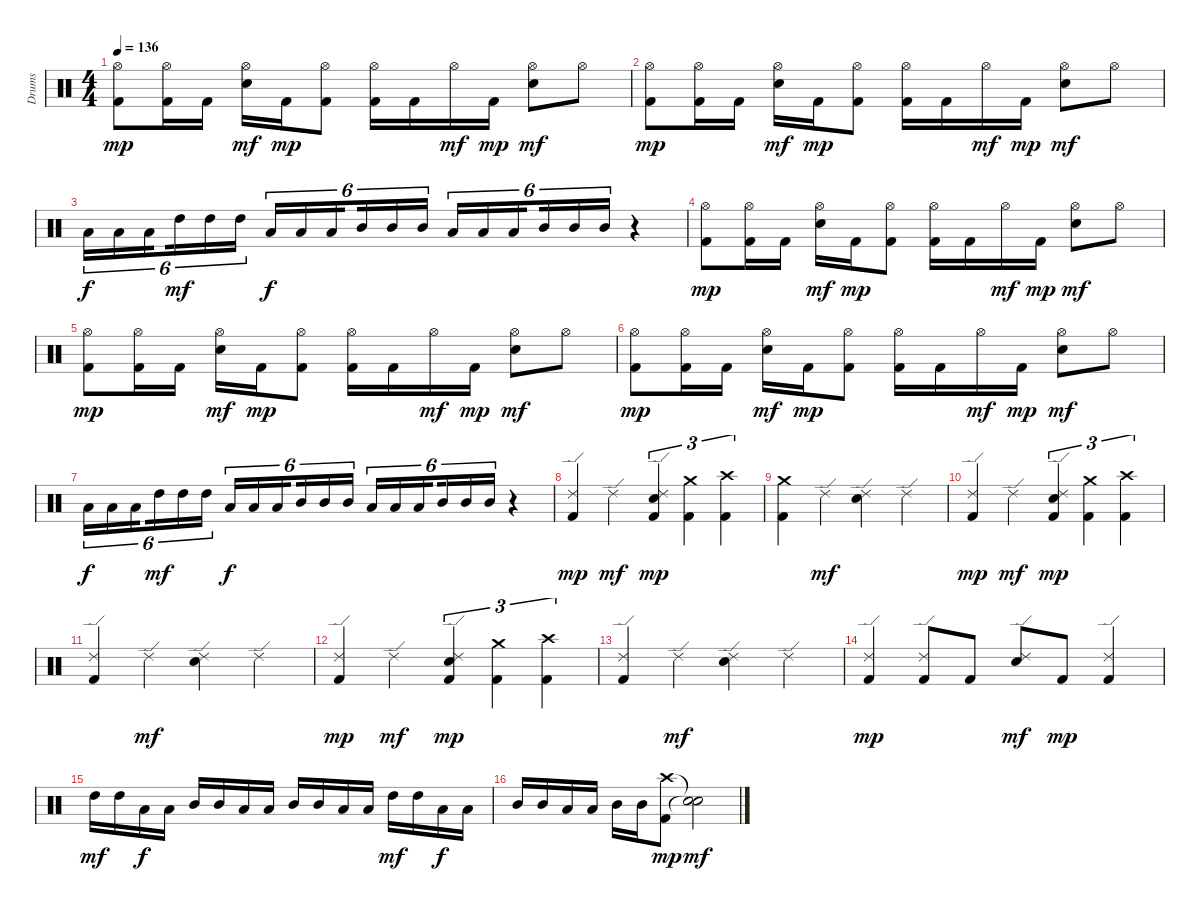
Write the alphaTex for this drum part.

\track ("Drums" "Drums") {instrument percussion}
\staff {score}
\articulation defaults
\ts (4 4)
\tempo 136
\clef neutral
\ks c
("Hi-Hat (open)" "Kick (hit) 2").8{dy mp} ("Hi-Hat (open)" "Kick (hit) 2").16 "Kick (hit) 2".16 ("Hi-Hat (open)" "Electric Snare (hit)").16{dy mf} "Kick (hit) 2".16{dy mp} ("Hi-Hat (open)" "Kick (hit) 2").8 ("Hi-Hat (open)" "Kick (hit) 2").16 "Kick (hit) 2".16 "Hi-Hat (open)".16{dy mf} "Kick (hit) 2".16{dy mp} ("Hi-Hat (open)" "Electric Snare (hit)").8{dy mf} "Hi-Hat (open)".8 |
("Hi-Hat (open)" "Kick (hit) 2").8{dy mp} ("Hi-Hat (open)" "Kick (hit) 2").16 "Kick (hit) 2".16 ("Hi-Hat (open)" "Electric Snare (hit)").16{dy mf} "Kick (hit) 2".16{dy mp} ("Hi-Hat (open)" "Kick (hit) 2").8 ("Hi-Hat (open)" "Kick (hit) 2").16 "Kick (hit) 2".16 "Hi-Hat (open)".16{dy mf} "Kick (hit) 2".16{dy mp} ("Hi-Hat (open)" "Electric Snare (hit)").8{dy mf} "Hi-Hat (open)".8 |
"Low Tom (hit)".16{tu (6 4) dy f} "Low Tom (hit)".16{tu (6 4)} "Low Tom (hit)".16{tu (6 4) beam splitsecondary} "High Tom (hit)".16{tu (6 4) dy mf} "High Tom (hit)".16{tu (6 4)} "High Tom (hit)".16{tu (6 4)} "Low Tom (hit)".16{tu (6 4) dy f} "Low Tom (hit)".16{tu (6 4)} "Low Tom (hit)".16{tu (6 4) beam splitsecondary} "Mid Tom (hit)".16{tu (6 4)} "Mid Tom (hit)".16{tu (6 4)} "Mid Tom (hit)".16{tu (6 4)} "Low Tom (hit)".16{tu (6 4)} "Low Tom (hit)".16{tu (6 4)} "Low Tom (hit)".16{tu (6 4) beam splitsecondary} "Mid Tom (hit)".16{tu (6 4)} "Mid Tom (hit)".16{tu (6 4)} "Mid Tom (hit)".16{tu (6 4)} r.4 |
("Hi-Hat (open)" "Kick (hit) 2").8{dy mp} ("Hi-Hat (open)" "Kick (hit) 2").16 "Kick (hit) 2".16 ("Hi-Hat (open)" "Electric Snare (hit)").16{dy mf} "Kick (hit) 2".16{dy mp} ("Hi-Hat (open)" "Kick (hit) 2").8 ("Hi-Hat (open)" "Kick (hit) 2").16 "Kick (hit) 2".16 "Hi-Hat (open)".16{dy mf} "Kick (hit) 2".16{dy mp} ("Hi-Hat (open)" "Electric Snare (hit)").8{dy mf} "Hi-Hat (open)".8 |
("Hi-Hat (open)" "Kick (hit) 2").8{dy mp} ("Hi-Hat (open)" "Kick (hit) 2").16 "Kick (hit) 2".16 ("Hi-Hat (open)" "Electric Snare (hit)").16{dy mf} "Kick (hit) 2".16{dy mp} ("Hi-Hat (open)" "Kick (hit) 2").8 ("Hi-Hat (open)" "Kick (hit) 2").16 "Kick (hit) 2".16 "Hi-Hat (open)".16{dy mf} "Kick (hit) 2".16{dy mp} ("Hi-Hat (open)" "Electric Snare (hit)").8{dy mf} "Hi-Hat (open)".8 |
("Hi-Hat (open)" "Kick (hit) 2").8{dy mp} ("Hi-Hat (open)" "Kick (hit) 2").16 "Kick (hit) 2".16 ("Hi-Hat (open)" "Electric Snare (hit)").16{dy mf} "Kick (hit) 2".16{dy mp} ("Hi-Hat (open)" "Kick (hit) 2").8 ("Hi-Hat (open)" "Kick (hit) 2").16 "Kick (hit) 2".16 "Hi-Hat (open)".16{dy mf} "Kick (hit) 2".16{dy mp} ("Hi-Hat (open)" "Electric Snare (hit)").8{dy mf} "Hi-Hat (open)".8 |
"Low Tom (hit)".16{tu (6 4) dy f} "Low Tom (hit)".16{tu (6 4)} "Low Tom (hit)".16{tu (6 4) beam splitsecondary} "High Tom (hit)".16{tu (6 4) dy mf} "High Tom (hit)".16{tu (6 4)} "High Tom (hit)".16{tu (6 4)} "Low Tom (hit)".16{tu (6 4) dy f} "Low Tom (hit)".16{tu (6 4)} "Low Tom (hit)".16{tu (6 4) beam splitsecondary} "Mid Tom (hit)".16{tu (6 4)} "Mid Tom (hit)".16{tu (6 4)} "Mid Tom (hit)".16{tu (6 4)} "Low Tom (hit)".16{tu (6 4)} "Low Tom (hit)".16{tu (6 4)} "Low Tom (hit)".16{tu (6 4) beam splitsecondary} "Mid Tom (hit)".16{tu (6 4)} "Mid Tom (hit)".16{tu (6 4)} "Mid Tom (hit)".16{tu (6 4)} r.4 |
("Ride (edge) 2" "Kick (hit) 2").4{dy mp} "Ride (edge) 2".4{dy mf} ("Ride (edge) 2" "Electric Snare (hit)" "Kick (hit) 2").4{tu (3 2) dy mp} ("Crash medium (hit)" "Kick (hit) 2").4{tu (3 2)} ("Crash high (hit)" "Kick (hit) 2").4{tu (3 2)} |
("Crash medium (hit)" "Kick (hit) 2").4 "Ride (edge) 2".4{dy mf} ("Ride (edge) 2" "Electric Snare (hit)").4 "Ride (edge) 2".4 |
("Ride (edge) 2" "Kick (hit) 2").4{dy mp} "Ride (edge) 2".4{dy mf} ("Ride (edge) 2" "Electric Snare (hit)" "Kick (hit) 2").4{tu (3 2) dy mp} ("Crash medium (hit)" "Kick (hit) 2").4{tu (3 2)} ("Crash high (hit)" "Kick (hit) 2").4{tu (3 2)} |
("Ride (edge) 2" "Kick (hit) 2").4 "Ride (edge) 2".4{dy mf} ("Ride (edge) 2" "Electric Snare (hit)").4 "Ride (edge) 2".4 |
("Ride (edge) 2" "Kick (hit) 2").4{dy mp} "Ride (edge) 2".4{dy mf} ("Ride (edge) 2" "Electric Snare (hit)" "Kick (hit) 2").4{tu (3 2) dy mp} ("Crash medium (hit)" "Kick (hit) 2").4{tu (3 2)} ("Crash high (hit)" "Kick (hit) 2").4{tu (3 2)} |
("Ride (edge) 2" "Kick (hit) 2").4 "Ride (edge) 2".4{dy mf} ("Ride (edge) 2" "Electric Snare (hit)").4 "Ride (edge) 2".4 |
("Ride (edge) 2" "Kick (hit) 2").4{dy mp} ("Ride (edge) 2" "Kick (hit) 2").8 "Kick (hit) 2".8 ("Ride (edge) 2" "Electric Snare (hit)").8{dy mf} "Kick (hit) 2".8{dy mp} ("Ride (edge) 2" "Kick (hit) 2").4 |
"High Tom (hit)".16{dy mf} "High Tom (hit)".16 "Low Tom (hit)".16{dy f} "Low Tom (hit)".16 "Mid Tom (hit)".16 "Mid Tom (hit)".16 "Low Tom (hit)".16 "Low Tom (hit)".16 "Mid Tom (hit)".16 "Mid Tom (hit)".16 "Low Tom (hit)".16 "Low Tom (hit)".16 "High Tom (hit)".16{dy mf} "High Tom (hit)".16 "Low Tom (hit)".16{dy f} "Low Tom (hit)".16 |
"Mid Tom (hit)".16 "Mid Tom (hit)".16 "Low Tom (hit)".16 "Low Tom (hit)".16 "Mid Tom (hit)".16 "Mid Tom (hit)".16 ("Crash high (hit)" "Kick (hit) 2").8{dy mp} ("Snare (hit)"{t} "Snare (hit)"{t}).2{dy mf}
